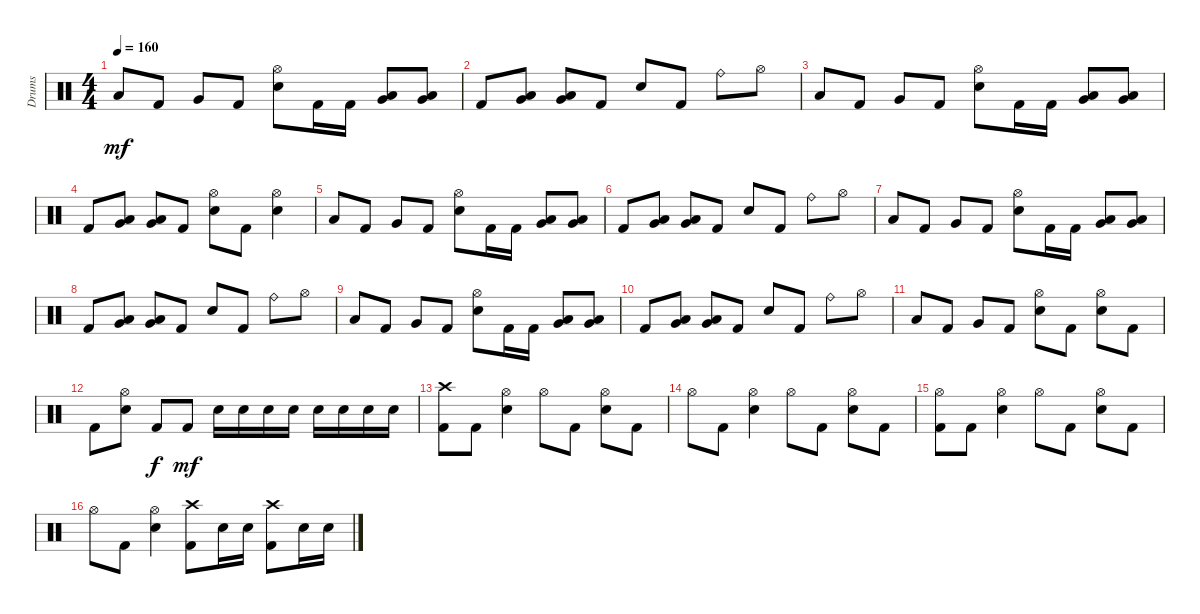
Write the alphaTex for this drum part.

\track ("Drums" "Drums") {instrument percussion}
\staff {score}
\articulation defaults
\ts (4 4)
\tempo 160
\clef neutral
\ks c "Low Tom (hit)".8{dy mf} "Kick (hit) 2".8 "Very Low Tom (hit)".8 "Kick (hit) 2".8
("Hi-Hat (open)" "Electric Snare (hit)").8 "Kick (hit) 2".16 "Kick (hit) 2".16 ("Very Low Tom (hit)" "Low Tom (hit)").8 ("Very Low Tom (hit)" "Low Tom (hit)").8 |
"Kick (hit) 2".8 ("Low Floor Tom (hit)" "Very Low Tom (hit)").8 ("Low Floor Tom (hit)" "Very Low Tom (hit)").8 "Kick (hit) 2".8 "Electric Snare (hit)".8 "Kick (hit) 2".8 "Ride (bell)".8 "Hi-Hat (open)".8 |
"Low Tom (hit)".8 "Kick (hit) 2".8 "Very Low Tom (hit)".8 "Kick (hit) 2".8 ("Hi-Hat (open)" "Electric Snare (hit)").8 "Kick (hit) 2".16 "Kick (hit) 2".16 ("Very Low Tom (hit)" "Low Tom (hit)").8 ("Very Low Tom (hit)" "Low Tom (hit)").8 |
"Kick (hit) 2".8 ("Low Floor Tom (hit)" "Very Low Tom (hit)").8 ("Low Floor Tom (hit)" "Very Low Tom (hit)").8 "Kick (hit) 2".8 ("Hi-Hat (open)" "Electric Snare (hit)").8 "Kick (hit) 2".8 ("Hi-Hat (open)" "Electric Snare (hit)").4 |
"Low Tom (hit)".8 "Kick (hit) 2".8 "Very Low Tom (hit)".8 "Kick (hit) 2".8 ("Hi-Hat (open)" "Electric Snare (hit)").8 "Kick (hit) 2".16 "Kick (hit) 2".16 ("Very Low Tom (hit)" "Low Tom (hit)").8 ("Very Low Tom (hit)" "Low Tom (hit)").8 |
"Kick (hit) 2".8 ("Low Floor Tom (hit)" "Very Low Tom (hit)").8 ("Low Floor Tom (hit)" "Very Low Tom (hit)").8 "Kick (hit) 2".8 "Electric Snare (hit)".8 "Kick (hit) 2".8 "Ride (bell)".8 "Hi-Hat (open)".8 |
"Low Tom (hit)".8 "Kick (hit) 2".8 "Very Low Tom (hit)".8 "Kick (hit) 2".8 ("Hi-Hat (open)" "Electric Snare (hit)").8 "Kick (hit) 2".16 "Kick (hit) 2".16 ("Very Low Tom (hit)" "Low Tom (hit)").8 ("Very Low Tom (hit)" "Low Tom (hit)").8 |
"Kick (hit) 2".8 ("Low Floor Tom (hit)" "Very Low Tom (hit)").8 ("Low Floor Tom (hit)" "Very Low Tom (hit)").8 "Kick (hit) 2".8 "Electric Snare (hit)".8 "Kick (hit) 2".8 "Ride (bell)".8 "Hi-Hat (open)".8 |
"Low Tom (hit)".8 "Kick (hit) 2".8 "Very Low Tom (hit)".8 "Kick (hit) 2".8 ("Hi-Hat (open)" "Electric Snare (hit)").8 "Kick (hit) 2".16 "Kick (hit) 2".16 ("Very Low Tom (hit)" "Low Tom (hit)").8 ("Very Low Tom (hit)" "Low Tom (hit)").8 |
"Kick (hit) 2".8 ("Low Floor Tom (hit)" "Very Low Tom (hit)").8 ("Low Floor Tom (hit)" "Very Low Tom (hit)").8 "Kick (hit) 2".8 "Electric Snare (hit)".8 "Kick (hit) 2".8 "Ride (bell)".8 "Hi-Hat (open)".8 |
"Low Tom (hit)".8 "Kick (hit) 2".8 "Very Low Tom (hit)".8 "Kick (hit) 2".8 ("Hi-Hat (open)" "Electric Snare (hit)").8 "Kick (hit) 2".8 ("Hi-Hat (open)" "Electric Snare (hit)").8 "Kick (hit) 2".8 |
"Kick (hit) 2".8 ("Hi-Hat (open)" "Electric Snare (hit)").8 "Kick (hit) 2".8{dy f} "Kick (hit) 2".8{dy mf} "Electric Snare (hit)".16 "Electric Snare (hit)".16 "Electric Snare (hit)".16 "Electric Snare (hit)".16 "Electric Snare (hit)".16 "Electric Snare (hit)".16 "Electric Snare (hit)".16 "Electric Snare (hit)".16 |
("Crash high (hit)" "Kick (hit) 2").8 "Kick (hit) 2".8 ("Hi-Hat (open)" "Electric Snare (hit)").4 "Hi-Hat (open)".8 "Kick (hit) 2".8 ("Hi-Hat (open)" "Electric Snare (hit)").8 "Kick (hit) 2".8 |
"Hi-Hat (open)".8 "Kick (hit) 2".8 ("Hi-Hat (open)" "Electric Snare (hit)").4 "Hi-Hat (open)".8 "Kick (hit) 2".8 ("Hi-Hat (open)" "Electric Snare (hit)").8 "Kick (hit) 2".8 |
("Hi-Hat (open)" "Kick (hit) 2").8 "Kick (hit) 2".8 ("Hi-Hat (open)" "Electric Snare (hit)").4 "Hi-Hat (open)".8 "Kick (hit) 2".8 ("Hi-Hat (open)" "Electric Snare (hit)").8 "Kick (hit) 2".8 |
"Hi-Hat (open)".8 "Kick (hit) 2".8 ("Hi-Hat (open)" "Electric Snare (hit)").4 ("Crash high (hit)" "Kick (hit) 2").8 "Electric Snare (hit)".16 "Electric Snare (hit)".16 ("Crash high (hit)" "Kick (hit) 2").8 "Electric Snare (hit)".16 "Electric Snare (hit)".16
